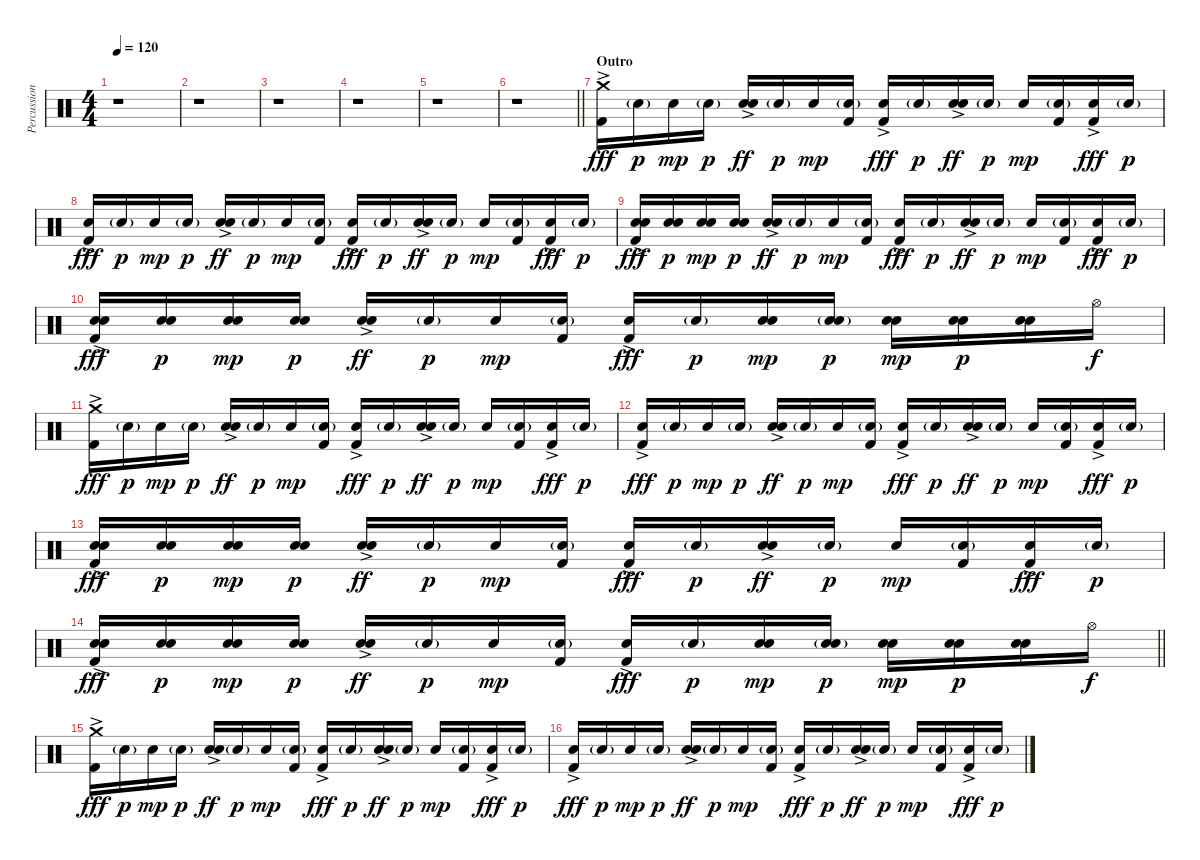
\track ("Percussion" "Percussion") {instrument percussion}
\staff {score}
\articulation defaults
\ts (4 4)
\tempo 120
\clef neutral
\ks c
r.1{dy mp} |
r.1 |
r.1 |
r.1 |
r.1 |
\barLineRight lightlight
r.1 |
\section ("" "Outro")
("Crash medium (hit)" "Kick (hit) 2"{ac}).16{dy fff} "Electric Snare (hit)"{g}.16{dy p} "Electric Snare (hit)".16{dy mp} "Electric Snare (hit)"{g}.16{dy p} ("Electric Snare (hit)"{ac} "Snare (hit) 2").16{dy ff} "Electric Snare (hit)"{g}.16{dy p} "Electric Snare (hit)".16{dy mp} ("Electric Snare (hit)"{g} "Kick (hit) 2").16 ("Electric Snare (hit)" "Kick (hit) 2"{ac}).16{dy fff} "Electric Snare (hit)"{g}.16{dy p} ("Electric Snare (hit)"{ac} "Snare (hit) 2").16{dy ff} "Electric Snare (hit)"{g}.16{dy p} "Electric Snare (hit)".16{dy mp} ("Electric Snare (hit)"{g} "Kick (hit) 2").16 ("Electric Snare (hit)" "Kick (hit) 2"{ac}).16{dy fff} "Electric Snare (hit)"{g}.16{dy p} |
("Electric Snare (hit)" "Kick (hit) 2"{ac}).16{dy fff} "Electric Snare (hit)"{g}.16{dy p} "Electric Snare (hit)".16{dy mp} "Electric Snare (hit)"{g}.16{dy p} ("Electric Snare (hit)"{ac} "Snare (hit) 2").16{dy ff} "Electric Snare (hit)"{g}.16{dy p} "Electric Snare (hit)".16{dy mp} ("Electric Snare (hit)"{g} "Kick (hit) 2").16 ("Electric Snare (hit)" "Kick (hit) 2"{ac}).16{dy fff} "Electric Snare (hit)"{g}.16{dy p} ("Electric Snare (hit)"{ac} "Snare (hit) 2").16{dy ff} "Electric Snare (hit)"{g}.16{dy p} "Electric Snare (hit)".16{dy mp} ("Electric Snare (hit)"{g} "Kick (hit) 2").16 ("Electric Snare (hit)" "Kick (hit) 2"{ac}).16{dy fff} "Electric Snare (hit)"{g}.16{dy p} |
("Electric Snare (hit)" "Snare (hit) 2" "Kick (hit) 2"{ac}).16{dy fff} ("Electric Snare (hit)" "Snare (hit) 2").16{dy p} ("Electric Snare (hit)" "Snare (hit) 2").16{dy mp} ("Electric Snare (hit)" "Snare (hit) 2").16{dy p} ("Electric Snare (hit)"{ac} "Snare (hit) 2").16{dy ff} "Electric Snare (hit)"{g}.16{dy p} "Electric Snare (hit)".16{dy mp} ("Electric Snare (hit)"{g} "Kick (hit) 2").16 ("Electric Snare (hit)" "Kick (hit) 2"{ac}).16{dy fff} "Electric Snare (hit)"{g}.16{dy p} ("Electric Snare (hit)"{ac} "Snare (hit) 2").16{dy ff} "Electric Snare (hit)"{g}.16{dy p} "Electric Snare (hit)".16{dy mp} ("Electric Snare (hit)"{g} "Kick (hit) 2").16 ("Electric Snare (hit)" "Kick (hit) 2"{ac}).16{dy fff} "Electric Snare (hit)"{g}.16{dy p} |
("Electric Snare (hit)" "Snare (hit) 2" "Kick (hit) 2"{ac}).16{dy fff} ("Electric Snare (hit)" "Snare (hit) 2").16{dy p} ("Electric Snare (hit)" "Snare (hit) 2").16{dy mp} ("Electric Snare (hit)" "Snare (hit) 2").16{dy p} ("Electric Snare (hit)"{ac} "Snare (hit) 2").16{dy ff} "Electric Snare (hit)"{g}.16{dy p} "Electric Snare (hit)".16{dy mp} ("Electric Snare (hit)"{g} "Kick (hit) 2").16 ("Electric Snare (hit)" "Kick (hit) 2"{ac}).16{dy fff} "Electric Snare (hit)"{g}.16{dy p} ("Electric Snare (hit)" "Snare (hit) 2").16{dy mp} ("Electric Snare (hit)"{g} "Snare (hit) 2").16{dy p} ("Electric Snare (hit)" "Snare (hit) 2").16{dy mp} ("Electric Snare (hit)" "Snare (hit) 2").16{dy p} ("Electric Snare (hit)" "Snare (hit) 2").16 "Hi-Hat (open)".16{dy f} |
("Crash medium (hit)" "Kick (hit) 2"{ac}).16{dy fff} "Electric Snare (hit)"{g}.16{dy p} "Electric Snare (hit)".16{dy mp} "Electric Snare (hit)"{g}.16{dy p} ("Electric Snare (hit)"{ac} "Snare (hit) 2").16{dy ff} "Electric Snare (hit)"{g}.16{dy p} "Electric Snare (hit)".16{dy mp} ("Electric Snare (hit)"{g} "Kick (hit) 2").16 ("Electric Snare (hit)" "Kick (hit) 2"{ac}).16{dy fff} "Electric Snare (hit)"{g}.16{dy p} ("Electric Snare (hit)"{ac} "Snare (hit) 2").16{dy ff} "Electric Snare (hit)"{g}.16{dy p} "Electric Snare (hit)".16{dy mp} ("Electric Snare (hit)"{g} "Kick (hit) 2").16 ("Electric Snare (hit)" "Kick (hit) 2"{ac}).16{dy fff} "Electric Snare (hit)"{g}.16{dy p} |
("Electric Snare (hit)" "Kick (hit) 2"{ac}).16{dy fff} "Electric Snare (hit)"{g}.16{dy p} "Electric Snare (hit)".16{dy mp} "Electric Snare (hit)"{g}.16{dy p} ("Electric Snare (hit)"{ac} "Snare (hit) 2").16{dy ff} "Electric Snare (hit)"{g}.16{dy p} "Electric Snare (hit)".16{dy mp} ("Electric Snare (hit)"{g} "Kick (hit) 2").16 ("Electric Snare (hit)" "Kick (hit) 2"{ac}).16{dy fff} "Electric Snare (hit)"{g}.16{dy p} ("Electric Snare (hit)"{ac} "Snare (hit) 2").16{dy ff} "Electric Snare (hit)"{g}.16{dy p} "Electric Snare (hit)".16{dy mp} ("Electric Snare (hit)"{g} "Kick (hit) 2").16 ("Electric Snare (hit)" "Kick (hit) 2"{ac}).16{dy fff} "Electric Snare (hit)"{g}.16{dy p} |
("Electric Snare (hit)" "Snare (hit) 2" "Kick (hit) 2"{ac}).16{dy fff} ("Electric Snare (hit)" "Snare (hit) 2").16{dy p} ("Electric Snare (hit)" "Snare (hit) 2").16{dy mp} ("Electric Snare (hit)" "Snare (hit) 2").16{dy p} ("Electric Snare (hit)"{ac} "Snare (hit) 2").16{dy ff} "Electric Snare (hit)"{g}.16{dy p} "Electric Snare (hit)".16{dy mp} ("Electric Snare (hit)"{g} "Kick (hit) 2").16 ("Electric Snare (hit)" "Kick (hit) 2"{ac}).16{dy fff} "Electric Snare (hit)"{g}.16{dy p} ("Electric Snare (hit)"{ac} "Snare (hit) 2").16{dy ff} "Electric Snare (hit)"{g}.16{dy p} "Electric Snare (hit)".16{dy mp} ("Electric Snare (hit)"{g} "Kick (hit) 2").16 ("Electric Snare (hit)" "Kick (hit) 2"{ac}).16{dy fff} "Electric Snare (hit)"{g}.16{dy p} |
\barLineRight lightlight
("Electric Snare (hit)" "Snare (hit) 2" "Kick (hit) 2"{ac}).16{dy fff} ("Electric Snare (hit)" "Snare (hit) 2").16{dy p} ("Electric Snare (hit)" "Snare (hit) 2").16{dy mp} ("Electric Snare (hit)" "Snare (hit) 2").16{dy p} ("Electric Snare (hit)"{ac} "Snare (hit) 2").16{dy ff} "Electric Snare (hit)"{g}.16{dy p} "Electric Snare (hit)".16{dy mp} ("Electric Snare (hit)"{g} "Kick (hit) 2").16 ("Electric Snare (hit)" "Kick (hit) 2"{ac}).16{dy fff} "Electric Snare (hit)"{g}.16{dy p} ("Electric Snare (hit)" "Snare (hit) 2").16{dy mp} ("Electric Snare (hit)"{g} "Snare (hit) 2").16{dy p} ("Electric Snare (hit)" "Snare (hit) 2").16{dy mp} ("Electric Snare (hit)" "Snare (hit) 2").16{dy p} ("Electric Snare (hit)" "Snare (hit) 2").16 "Hi-Hat (open)".16{dy f} |
("Crash medium (hit)" "Kick (hit) 2"{ac}).16{dy fff} "Electric Snare (hit)"{g}.16{dy p} "Electric Snare (hit)".16{dy mp} "Electric Snare (hit)"{g}.16{dy p} ("Electric Snare (hit)"{ac} "Snare (hit) 2").16{dy ff} "Electric Snare (hit)"{g}.16{dy p} "Electric Snare (hit)".16{dy mp} ("Electric Snare (hit)"{g} "Kick (hit) 2").16 ("Electric Snare (hit)" "Kick (hit) 2"{ac}).16{dy fff} "Electric Snare (hit)"{g}.16{dy p} ("Electric Snare (hit)"{ac} "Snare (hit) 2").16{dy ff} "Electric Snare (hit)"{g}.16{dy p} "Electric Snare (hit)".16{dy mp} ("Electric Snare (hit)"{g} "Kick (hit) 2").16 ("Electric Snare (hit)" "Kick (hit) 2"{ac}).16{dy fff} "Electric Snare (hit)"{g}.16{dy p} |
("Electric Snare (hit)" "Kick (hit) 2"{ac}).16{dy fff} "Electric Snare (hit)"{g}.16{dy p} "Electric Snare (hit)".16{dy mp} "Electric Snare (hit)"{g}.16{dy p} ("Electric Snare (hit)"{ac} "Snare (hit) 2").16{dy ff} "Electric Snare (hit)"{g}.16{dy p} "Electric Snare (hit)".16{dy mp} ("Electric Snare (hit)"{g} "Kick (hit) 2").16 ("Electric Snare (hit)" "Kick (hit) 2"{ac}).16{dy fff} "Electric Snare (hit)"{g}.16{dy p} ("Electric Snare (hit)"{ac} "Snare (hit) 2").16{dy ff} "Electric Snare (hit)"{g}.16{dy p} "Electric Snare (hit)".16{dy mp} ("Electric Snare (hit)"{g} "Kick (hit) 2").16 ("Electric Snare (hit)" "Kick (hit) 2"{ac}).16{dy fff} "Electric Snare (hit)"{g}.16{dy p}
